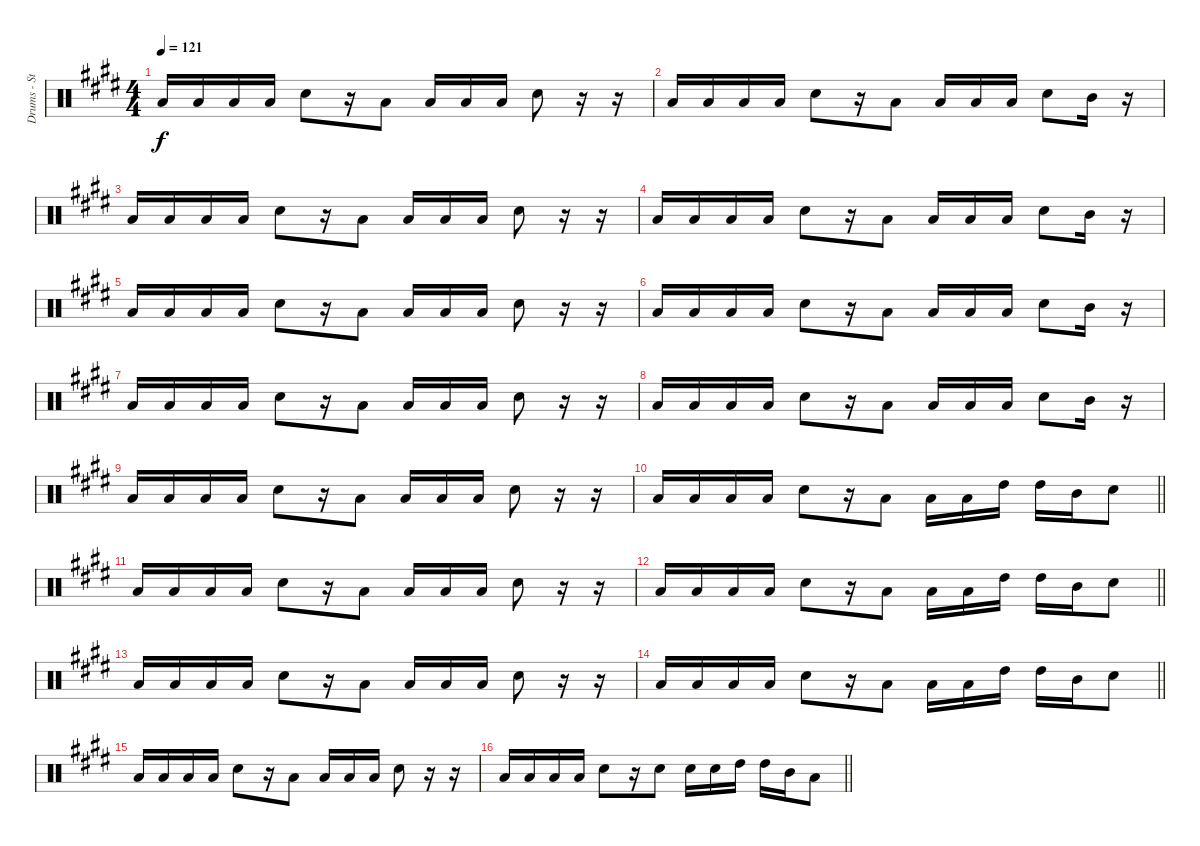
\track ("Drums - Stephen Morris" "Drums - St") {instrument percussion}
\staff {score}
\articulation defaults
\ts (4 4)
\tempo 121
\clef neutral
\ks c#minor "Low Tom (hit)".16{dy f} "Low Tom (hit)".16 "Low Tom (hit)".16 "Low Tom (hit)".16 "Electric Snare (hit)".8
r.16 "Low Tom (hit)".8 "Low Tom (hit)".16 "Low Tom (hit)".16 "Low Tom (hit)".16 "Electric Snare (hit)".8 r.16 r.16 |
\ks e "Low Tom (hit)".16 "Low Tom (hit)".16 "Low Tom (hit)".16 "Low Tom (hit)".16 "Electric Snare (hit)".8
r.16 "Low Tom (hit)".8 "Low Tom (hit)".16 "Low Tom (hit)".16 "Low Tom (hit)".16 "Electric Snare (hit)".8 "Mid Tom (hit)".16 r.16 |
\ks c#minor "Low Tom (hit)".16 "Low Tom (hit)".16 "Low Tom (hit)".16 "Low Tom (hit)".16 "Electric Snare (hit)".8
r.16 "Low Tom (hit)".8 "Low Tom (hit)".16 "Low Tom (hit)".16 "Low Tom (hit)".16 "Electric Snare (hit)".8 r.16 r.16 |
"Low Tom (hit)".16 "Low Tom (hit)".16 "Low Tom (hit)".16 "Low Tom (hit)".16 "Electric Snare (hit)".8 r.16 "Low Tom (hit)".8 "Low Tom (hit)".16 "Low Tom (hit)".16 "Low Tom (hit)".16 "Electric Snare (hit)".8 "Mid Tom (hit)".16 r.16 |
"Low Tom (hit)".16 "Low Tom (hit)".16 "Low Tom (hit)".16 "Low Tom (hit)".16 "Electric Snare (hit)".8 r.16 "Low Tom (hit)".8 "Low Tom (hit)".16 "Low Tom (hit)".16 "Low Tom (hit)".16 "Electric Snare (hit)".8 r.16 r.16 |
\ks e "Low Tom (hit)".16 "Low Tom (hit)".16 "Low Tom (hit)".16 "Low Tom (hit)".16 "Electric Snare (hit)".8
r.16 "Low Tom (hit)".8 "Low Tom (hit)".16 "Low Tom (hit)".16 "Low Tom (hit)".16 "Electric Snare (hit)".8 "Mid Tom (hit)".16 r.16 |
\ks c#minor "Low Tom (hit)".16 "Low Tom (hit)".16 "Low Tom (hit)".16 "Low Tom (hit)".16 "Electric Snare (hit)".8
r.16 "Low Tom (hit)".8 "Low Tom (hit)".16 "Low Tom (hit)".16 "Low Tom (hit)".16 "Electric Snare (hit)".8 r.16 r.16 |
"Low Tom (hit)".16 "Low Tom (hit)".16 "Low Tom (hit)".16 "Low Tom (hit)".16 "Electric Snare (hit)".8 r.16 "Low Tom (hit)".8 "Low Tom (hit)".16 "Low Tom (hit)".16 "Low Tom (hit)".16 "Electric Snare (hit)".8 "Mid Tom (hit)".16 r.16 |
\ks e "Low Tom (hit)".16 "Low Tom (hit)".16 "Low Tom (hit)".16 "Low Tom (hit)".16 "Electric Snare (hit)".8
r.16 "Low Tom (hit)".8 "Low Tom (hit)".16 "Low Tom (hit)".16 "Low Tom (hit)".16 "Electric Snare (hit)".8 r.16 r.16 |
\barLineRight lightlight
\ks c#minor "Low Tom (hit)".16 "Low Tom (hit)".16 "Low Tom (hit)".16 "Low Tom (hit)".16 "Electric Snare (hit)".8
r.16 "Low Tom (hit)".8 "Low Tom (hit)".16 "Low Tom (hit)".16 "High Tom (hit)".16 "High Tom (hit)".16 "Mid Tom (hit)".16 "Electric Snare (hit)".8 |
\ks e "Low Tom (hit)".16 "Low Tom (hit)".16 "Low Tom (hit)".16 "Low Tom (hit)".16 "Electric Snare (hit)".8
r.16 "Low Tom (hit)".8 "Low Tom (hit)".16 "Low Tom (hit)".16 "Low Tom (hit)".16 "Electric Snare (hit)".8 r.16 r.16 |
\barLineRight lightlight
\ks c#minor "Low Tom (hit)".16 "Low Tom (hit)".16 "Low Tom (hit)".16 "Low Tom (hit)".16 "Electric Snare (hit)".8
r.16 "Low Tom (hit)".8 "Low Tom (hit)".16 "Low Tom (hit)".16 "High Tom (hit)".16 "High Tom (hit)".16 "Mid Tom (hit)".16 "Electric Snare (hit)".8 |
\ks e "Low Tom (hit)".16 "Low Tom (hit)".16 "Low Tom (hit)".16 "Low Tom (hit)".16 "Electric Snare (hit)".8
r.16 "Low Tom (hit)".8 "Low Tom (hit)".16 "Low Tom (hit)".16 "Low Tom (hit)".16 "Electric Snare (hit)".8 r.16 r.16 |
\barLineRight lightlight
\ks c#minor "Low Tom (hit)".16 "Low Tom (hit)".16 "Low Tom (hit)".16 "Low Tom (hit)".16 "Electric Snare (hit)".8
r.16 "Low Tom (hit)".8 "Low Tom (hit)".16 "Low Tom (hit)".16 "High Tom (hit)".16 "High Tom (hit)".16 "Mid Tom (hit)".16 "Electric Snare (hit)".8 |
\ks e "Low Tom (hit)".16 "Low Tom (hit)".16 "Low Tom (hit)".16 "Low Tom (hit)".16 "Electric Snare (hit)".8
r.16 "Low Tom (hit)".8 "Low Tom (hit)".16 "Low Tom (hit)".16 "Low Tom (hit)".16 "Electric Snare (hit)".8 r.16 r.16 |
\barLineRight lightlight
\ks c#minor "Low Tom (hit)".16 "Low Tom (hit)".16 "Low Tom (hit)".16 "Low Tom (hit)".16 "Electric Snare (hit)".8
r.16 "Electric Snare (hit)".8 "Electric Snare (hit)".16 "Electric Snare (hit)".16 "High Tom (hit)".16 "High Tom (hit)".16 "Mid Tom (hit)".16 "Low Tom (hit)".8
